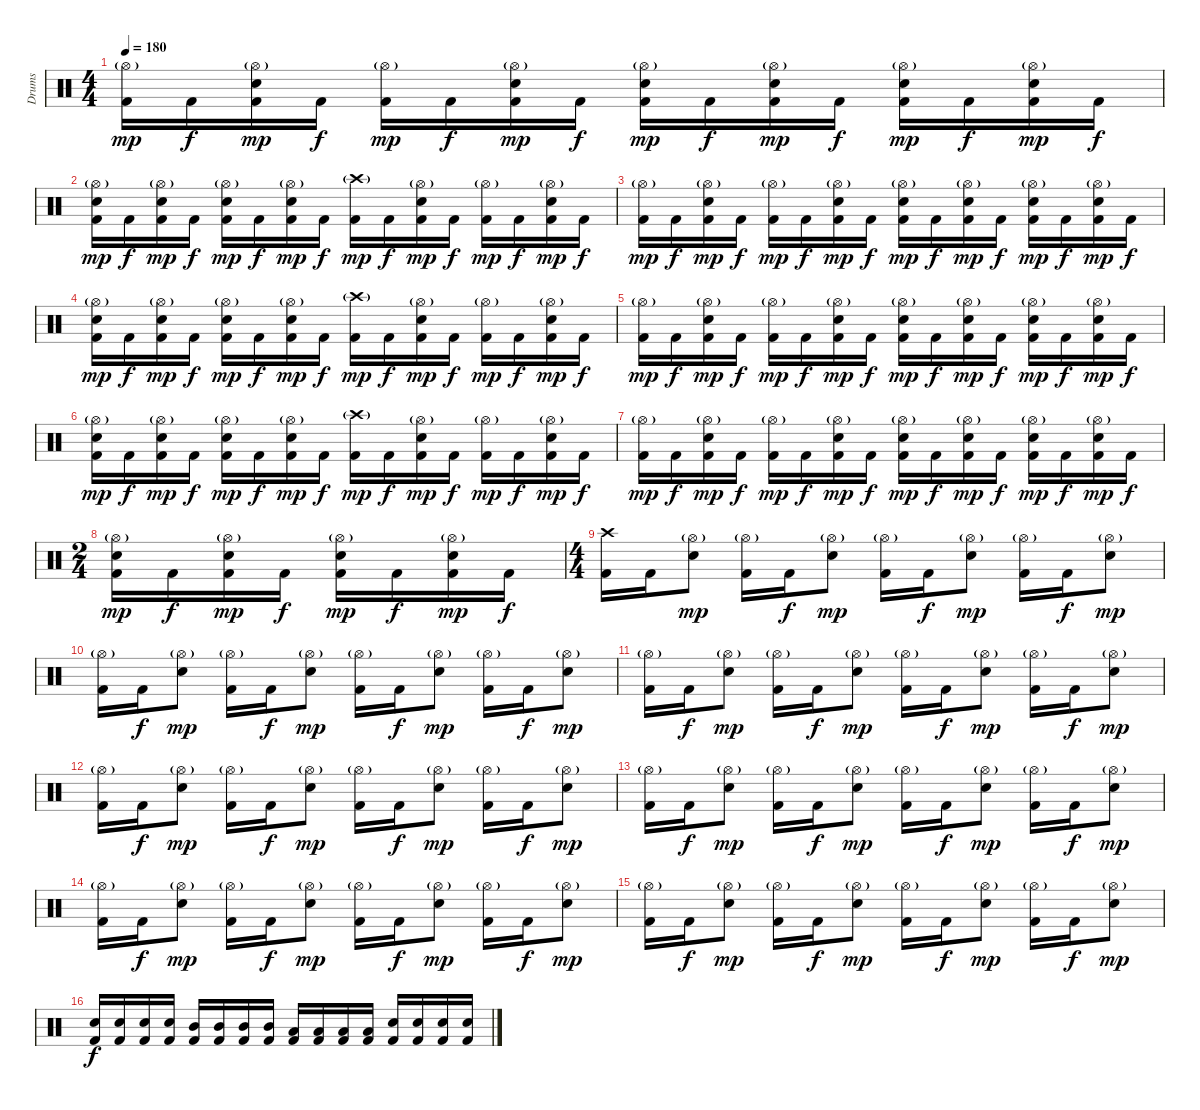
\track ("Drums" "Drums") {instrument percussion}
\staff {score}
\articulation defaults
\ts (4 4)
\tempo 180
\clef neutral
\ks c
("Hi-Hat (open)"{g} "Kick (hit) 2").16{dy mp} "Kick (hit) 2".16{dy f} ("Hi-Hat (open)"{g} "Electric Snare (hit)" "Kick (hit) 2").16{dy mp} "Kick (hit) 2".16{dy f} ("Hi-Hat (open)"{g} "Kick (hit) 2").16{dy mp} "Kick (hit) 2".16{dy f} ("Hi-Hat (open)"{g} "Electric Snare (hit)" "Kick (hit) 2").16{dy mp} "Kick (hit) 2".16{dy f} ("Hi-Hat (open)"{g} "Electric Snare (hit)" "Kick (hit) 2").16{dy mp} "Kick (hit) 2".16{dy f} ("Hi-Hat (open)"{g} "Electric Snare (hit)" "Kick (hit) 2").16{dy mp} "Kick (hit) 2".16{dy f} ("Hi-Hat (open)"{g} "Electric Snare (hit)" "Kick (hit) 2").16{dy mp} "Kick (hit) 2".16{dy f} ("Hi-Hat (open)"{g} "Electric Snare (hit)" "Kick (hit) 2").16{dy mp} "Kick (hit) 2".16{dy f} |
("Hi-Hat (open)"{g} "Electric Snare (hit)" "Kick (hit) 2").16{dy mp} "Kick (hit) 2".16{dy f} ("Hi-Hat (open)"{g} "Electric Snare (hit)" "Kick (hit) 2").16{dy mp} "Kick (hit) 2".16{dy f} ("Hi-Hat (open)"{g} "Electric Snare (hit)" "Kick (hit) 2").16{dy mp} "Kick (hit) 2".16{dy f} ("Hi-Hat (open)"{g} "Electric Snare (hit)" "Kick (hit) 2").16{dy mp} "Kick (hit) 2".16{dy f} ("Crash high (hit)"{g} "Kick (hit) 2").16{dy mp} "Kick (hit) 2".16{dy f} ("Hi-Hat (open)"{g} "Electric Snare (hit)" "Kick (hit) 2").16{dy mp} "Kick (hit) 2".16{dy f} ("Hi-Hat (open)"{g} "Kick (hit) 2").16{dy mp} "Kick (hit) 2".16{dy f} ("Hi-Hat (open)"{g} "Electric Snare (hit)" "Kick (hit) 2").16{dy mp} "Kick (hit) 2".16{dy f} |
("Hi-Hat (open)"{g} "Kick (hit) 2").16{dy mp} "Kick (hit) 2".16{dy f} ("Hi-Hat (open)"{g} "Electric Snare (hit)" "Kick (hit) 2").16{dy mp} "Kick (hit) 2".16{dy f} ("Hi-Hat (open)"{g} "Kick (hit) 2").16{dy mp} "Kick (hit) 2".16{dy f} ("Hi-Hat (open)"{g} "Electric Snare (hit)" "Kick (hit) 2").16{dy mp} "Kick (hit) 2".16{dy f} ("Hi-Hat (open)"{g} "Electric Snare (hit)" "Kick (hit) 2").16{dy mp} "Kick (hit) 2".16{dy f} ("Hi-Hat (open)"{g} "Electric Snare (hit)" "Kick (hit) 2").16{dy mp} "Kick (hit) 2".16{dy f} ("Hi-Hat (open)"{g} "Electric Snare (hit)" "Kick (hit) 2").16{dy mp} "Kick (hit) 2".16{dy f} ("Hi-Hat (open)"{g} "Electric Snare (hit)" "Kick (hit) 2").16{dy mp} "Kick (hit) 2".16{dy f} |
("Hi-Hat (open)"{g} "Electric Snare (hit)" "Kick (hit) 2").16{dy mp} "Kick (hit) 2".16{dy f} ("Hi-Hat (open)"{g} "Electric Snare (hit)" "Kick (hit) 2").16{dy mp} "Kick (hit) 2".16{dy f} ("Hi-Hat (open)"{g} "Electric Snare (hit)" "Kick (hit) 2").16{dy mp} "Kick (hit) 2".16{dy f} ("Hi-Hat (open)"{g} "Electric Snare (hit)" "Kick (hit) 2").16{dy mp} "Kick (hit) 2".16{dy f} ("Crash high (hit)"{g} "Kick (hit) 2").16{dy mp} "Kick (hit) 2".16{dy f} ("Hi-Hat (open)"{g} "Electric Snare (hit)" "Kick (hit) 2").16{dy mp} "Kick (hit) 2".16{dy f} ("Hi-Hat (open)"{g} "Kick (hit) 2").16{dy mp} "Kick (hit) 2".16{dy f} ("Hi-Hat (open)"{g} "Electric Snare (hit)" "Kick (hit) 2").16{dy mp} "Kick (hit) 2".16{dy f} |
("Hi-Hat (open)"{g} "Kick (hit) 2").16{dy mp} "Kick (hit) 2".16{dy f} ("Hi-Hat (open)"{g} "Electric Snare (hit)" "Kick (hit) 2").16{dy mp} "Kick (hit) 2".16{dy f} ("Hi-Hat (open)"{g} "Kick (hit) 2").16{dy mp} "Kick (hit) 2".16{dy f} ("Hi-Hat (open)"{g} "Electric Snare (hit)" "Kick (hit) 2").16{dy mp} "Kick (hit) 2".16{dy f} ("Hi-Hat (open)"{g} "Electric Snare (hit)" "Kick (hit) 2").16{dy mp} "Kick (hit) 2".16{dy f} ("Hi-Hat (open)"{g} "Electric Snare (hit)" "Kick (hit) 2").16{dy mp} "Kick (hit) 2".16{dy f} ("Hi-Hat (open)"{g} "Electric Snare (hit)" "Kick (hit) 2").16{dy mp} "Kick (hit) 2".16{dy f} ("Hi-Hat (open)"{g} "Electric Snare (hit)" "Kick (hit) 2").16{dy mp} "Kick (hit) 2".16{dy f} |
("Hi-Hat (open)"{g} "Electric Snare (hit)" "Kick (hit) 2").16{dy mp} "Kick (hit) 2".16{dy f} ("Hi-Hat (open)"{g} "Electric Snare (hit)" "Kick (hit) 2").16{dy mp} "Kick (hit) 2".16{dy f} ("Hi-Hat (open)"{g} "Electric Snare (hit)" "Kick (hit) 2").16{dy mp} "Kick (hit) 2".16{dy f} ("Hi-Hat (open)"{g} "Electric Snare (hit)" "Kick (hit) 2").16{dy mp} "Kick (hit) 2".16{dy f} ("Crash high (hit)"{g} "Kick (hit) 2").16{dy mp} "Kick (hit) 2".16{dy f} ("Hi-Hat (open)"{g} "Electric Snare (hit)" "Kick (hit) 2").16{dy mp} "Kick (hit) 2".16{dy f} ("Hi-Hat (open)"{g} "Kick (hit) 2").16{dy mp} "Kick (hit) 2".16{dy f} ("Hi-Hat (open)"{g} "Electric Snare (hit)" "Kick (hit) 2").16{dy mp} "Kick (hit) 2".16{dy f} |
("Hi-Hat (open)"{g} "Kick (hit) 2").16{dy mp} "Kick (hit) 2".16{dy f} ("Hi-Hat (open)"{g} "Electric Snare (hit)" "Kick (hit) 2").16{dy mp} "Kick (hit) 2".16{dy f} ("Hi-Hat (open)"{g} "Kick (hit) 2").16{dy mp} "Kick (hit) 2".16{dy f} ("Hi-Hat (open)"{g} "Electric Snare (hit)" "Kick (hit) 2").16{dy mp} "Kick (hit) 2".16{dy f} ("Hi-Hat (open)"{g} "Electric Snare (hit)" "Kick (hit) 2").16{dy mp} "Kick (hit) 2".16{dy f} ("Hi-Hat (open)"{g} "Electric Snare (hit)" "Kick (hit) 2").16{dy mp} "Kick (hit) 2".16{dy f} ("Hi-Hat (open)"{g} "Electric Snare (hit)" "Kick (hit) 2").16{dy mp} "Kick (hit) 2".16{dy f} ("Hi-Hat (open)"{g} "Electric Snare (hit)" "Kick (hit) 2").16{dy mp} "Kick (hit) 2".16{dy f} |
\ts (2 4)
("Hi-Hat (open)"{g} "Electric Snare (hit)" "Kick (hit) 2").16{dy mp} "Kick (hit) 2".16{dy f} ("Hi-Hat (open)"{g} "Electric Snare (hit)" "Kick (hit) 2").16{dy mp} "Kick (hit) 2".16{dy f} ("Hi-Hat (open)"{g} "Electric Snare (hit)" "Kick (hit) 2").16{dy mp} "Kick (hit) 2".16{dy f} ("Hi-Hat (open)"{g} "Electric Snare (hit)" "Kick (hit) 2").16{dy mp} "Kick (hit) 2".16{dy f} |
\ts (4 4)
("Crash high (hit)" "Kick (hit) 2").16 "Kick (hit) 2".16 ("Hi-Hat (open)"{g} "Electric Snare (hit)").8{dy mp} ("Hi-Hat (open)"{g} "Kick (hit) 2").16 "Kick (hit) 2".16{dy f} ("Hi-Hat (open)"{g} "Electric Snare (hit)").8{dy mp} ("Hi-Hat (open)"{g} "Kick (hit) 2").16 "Kick (hit) 2".16{dy f} ("Hi-Hat (open)"{g} "Electric Snare (hit)").8{dy mp} ("Hi-Hat (open)"{g} "Kick (hit) 2").16 "Kick (hit) 2".16{dy f} ("Hi-Hat (open)"{g} "Electric Snare (hit)").8{dy mp} |
("Hi-Hat (open)"{g} "Kick (hit) 2").16 "Kick (hit) 2".16{dy f} ("Hi-Hat (open)"{g} "Electric Snare (hit)").8{dy mp} ("Hi-Hat (open)"{g} "Kick (hit) 2").16 "Kick (hit) 2".16{dy f} ("Hi-Hat (open)"{g} "Electric Snare (hit)").8{dy mp} ("Hi-Hat (open)"{g} "Kick (hit) 2").16 "Kick (hit) 2".16{dy f} ("Hi-Hat (open)"{g} "Electric Snare (hit)").8{dy mp} ("Hi-Hat (open)"{g} "Kick (hit) 2").16 "Kick (hit) 2".16{dy f} ("Hi-Hat (open)"{g} "Electric Snare (hit)").8{dy mp} |
("Hi-Hat (open)"{g} "Kick (hit) 2").16 "Kick (hit) 2".16{dy f} ("Hi-Hat (open)"{g} "Electric Snare (hit)").8{dy mp} ("Hi-Hat (open)"{g} "Kick (hit) 2").16 "Kick (hit) 2".16{dy f} ("Hi-Hat (open)"{g} "Electric Snare (hit)").8{dy mp} ("Hi-Hat (open)"{g} "Kick (hit) 2").16 "Kick (hit) 2".16{dy f} ("Hi-Hat (open)"{g} "Electric Snare (hit)").8{dy mp} ("Hi-Hat (open)"{g} "Kick (hit) 2").16 "Kick (hit) 2".16{dy f} ("Hi-Hat (open)"{g} "Electric Snare (hit)").8{dy mp} |
("Hi-Hat (open)"{g} "Kick (hit) 2").16 "Kick (hit) 2".16{dy f} ("Hi-Hat (open)"{g} "Electric Snare (hit)").8{dy mp} ("Hi-Hat (open)"{g} "Kick (hit) 2").16 "Kick (hit) 2".16{dy f} ("Hi-Hat (open)"{g} "Electric Snare (hit)").8{dy mp} ("Hi-Hat (open)"{g} "Kick (hit) 2").16 "Kick (hit) 2".16{dy f} ("Hi-Hat (open)"{g} "Electric Snare (hit)").8{dy mp} ("Hi-Hat (open)"{g} "Kick (hit) 2").16 "Kick (hit) 2".16{dy f} ("Hi-Hat (open)"{g} "Electric Snare (hit)").8{dy mp} |
("Hi-Hat (open)"{g} "Kick (hit) 2").16 "Kick (hit) 2".16{dy f} ("Hi-Hat (open)"{g} "Electric Snare (hit)").8{dy mp} ("Hi-Hat (open)"{g} "Kick (hit) 2").16 "Kick (hit) 2".16{dy f} ("Hi-Hat (open)"{g} "Electric Snare (hit)").8{dy mp} ("Hi-Hat (open)"{g} "Kick (hit) 2").16 "Kick (hit) 2".16{dy f} ("Hi-Hat (open)"{g} "Electric Snare (hit)").8{dy mp} ("Hi-Hat (open)"{g} "Kick (hit) 2").16 "Kick (hit) 2".16{dy f} ("Hi-Hat (open)"{g} "Electric Snare (hit)").8{dy mp} |
("Hi-Hat (open)"{g} "Kick (hit) 2").16 "Kick (hit) 2".16{dy f} ("Hi-Hat (open)"{g} "Electric Snare (hit)").8{dy mp} ("Hi-Hat (open)"{g} "Kick (hit) 2").16 "Kick (hit) 2".16{dy f} ("Hi-Hat (open)"{g} "Electric Snare (hit)").8{dy mp} ("Hi-Hat (open)"{g} "Kick (hit) 2").16 "Kick (hit) 2".16{dy f} ("Hi-Hat (open)"{g} "Electric Snare (hit)").8{dy mp} ("Hi-Hat (open)"{g} "Kick (hit) 2").16 "Kick (hit) 2".16{dy f} ("Hi-Hat (open)"{g} "Electric Snare (hit)").8{dy mp} |
("Hi-Hat (open)"{g} "Kick (hit) 2").16 "Kick (hit) 2".16{dy f} ("Hi-Hat (open)"{g} "Electric Snare (hit)").8{dy mp} ("Hi-Hat (open)"{g} "Kick (hit) 2").16 "Kick (hit) 2".16{dy f} ("Hi-Hat (open)"{g} "Electric Snare (hit)").8{dy mp} ("Hi-Hat (open)"{g} "Kick (hit) 2").16 "Kick (hit) 2".16{dy f} ("Hi-Hat (open)"{g} "Electric Snare (hit)").8{dy mp} ("Hi-Hat (open)"{g} "Kick (hit) 2").16 "Kick (hit) 2".16{dy f} ("Hi-Hat (open)"{g} "Electric Snare (hit)").8{dy mp} |
("Electric Snare (hit)" "Kick (hit) 2").16{dy f} ("Electric Snare (hit)" "Kick (hit) 2").16 ("Electric Snare (hit)" "Kick (hit) 2").16 ("Electric Snare (hit)" "Kick (hit) 2").16 ("Mid Tom (hit)" "Kick (hit) 2").16 ("Mid Tom (hit)" "Kick (hit) 2").16 ("Mid Tom (hit)" "Kick (hit) 2").16 ("Mid Tom (hit)" "Kick (hit) 2").16 ("Low Tom (hit)" "Kick (hit) 2").16 ("Low Tom (hit)" "Kick (hit) 2").16 ("Low Tom (hit)" "Kick (hit) 2").16 ("Low Tom (hit)" "Kick (hit) 2").16 ("Electric Snare (hit)" "Kick (hit) 2").16 ("Electric Snare (hit)" "Kick (hit) 2").16 ("Electric Snare (hit)" "Kick (hit) 2").16 ("Electric Snare (hit)" "Kick (hit) 2").16
